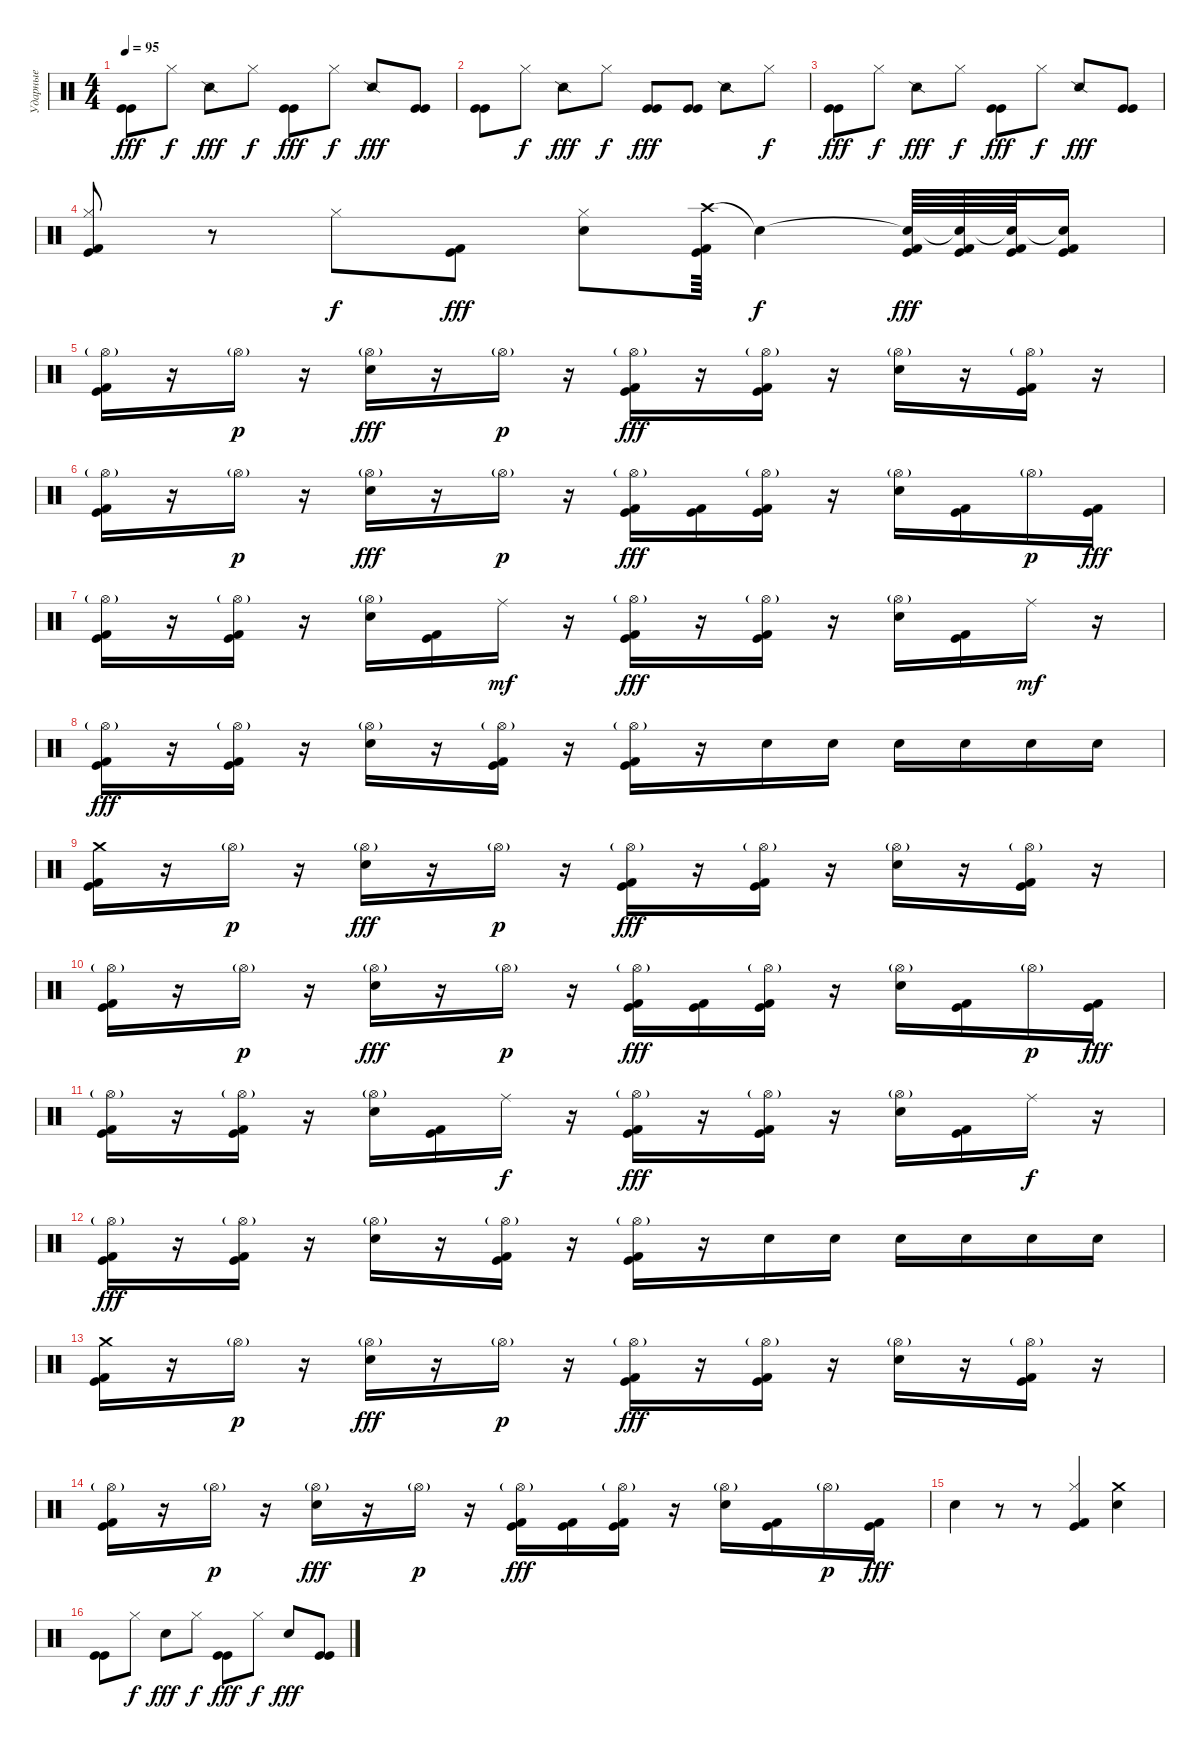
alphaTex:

\track ("Ударные" "Ударные") {instrument percussion}
\staff {score}
\articulation defaults
\ts (4 4)
\tempo 95
\clef neutral
\ks c
("Kick (hit)" "Kick (hit)").8{dy fff} "Hi-Hat (closed)".8{dy f} "Snare (side stick) 2".8{dy fff} "Hi-Hat (closed)".8{dy f} ("Kick (hit)" "Kick (hit)").8{dy fff} "Hi-Hat (closed)".8{dy f} "Snare (side stick) 2".8{dy fff} ("Kick (hit)" "Kick (hit)").8 |
("Kick (hit)" "Kick (hit)").8 "Hi-Hat (closed)".8{dy f} "Snare (side stick) 2".8{dy fff} "Hi-Hat (closed)".8{dy f} ("Kick (hit)" "Kick (hit)").8{dy fff} ("Kick (hit)" "Kick (hit)").8 "Snare (side stick) 2".8 "Hi-Hat (closed)".8{dy f} |
("Kick (hit)" "Kick (hit)").8{dy fff} "Hi-Hat (closed)".8{dy f} "Snare (side stick) 2".8{dy fff} "Hi-Hat (closed)".8{dy f} ("Kick (hit)" "Kick (hit)").8{dy fff} "Hi-Hat (closed)".8{dy f} "Snare (side stick) 2".8{dy fff} ("Kick (hit)" "Kick (hit)").8 |
("Hi-Hat (closed)" "Kick (hit)" "Kick (hit) 2").8 r.8 "Hi-Hat (closed)".8{dy f} ("Kick (hit)" "Kick (hit) 2").8{dy fff} ("Hi-Hat (closed)" "Snare (hit) 2").8 ("Crash high (hit)" "Kick (hit)" "Kick (hit) 2").64 "Snare (hit)"{t}.4{dy f} ("Snare (hit)"{t} "Kick (hit)" "Kick (hit) 2").64{dy fff} ("Snare (hit)"{t} "Kick (hit)" "Kick (hit) 2").64 ("Snare (hit)"{t} "Kick (hit)" "Kick (hit) 2").64 ("Snare (hit)"{t} "Kick (hit)" "Kick (hit) 2").16 |
("Hi-Hat (open)"{g} "Kick (hit) 2" "Kick (hit)").16 r.16 "Hi-Hat (open)"{g}.16{dy p} r.16 ("Hi-Hat (open)"{g} "Electric Snare (hit)").16{dy fff} r.16 "Hi-Hat (open)"{g}.16{dy p} r.16 ("Hi-Hat (open)"{g} "Kick (hit) 2" "Kick (hit)").16{dy fff} r.16 ("Hi-Hat (open)"{g} "Kick (hit) 2" "Kick (hit)").16 r.16 ("Hi-Hat (open)"{g} "Electric Snare (hit)").16 r.16 ("Hi-Hat (open)"{g} "Kick (hit) 2" "Kick (hit)").16 r.16 |
("Hi-Hat (open)"{g} "Kick (hit) 2" "Kick (hit)").16 r.16 "Hi-Hat (open)"{g}.16{dy p} r.16 ("Hi-Hat (open)"{g} "Electric Snare (hit)").16{dy fff} r.16 "Hi-Hat (open)"{g}.16{dy p} r.16 ("Hi-Hat (open)"{g} "Kick (hit) 2" "Kick (hit)").16{dy fff} ("Kick (hit) 2" "Kick (hit)").16 ("Hi-Hat (open)"{g} "Kick (hit) 2" "Kick (hit)").16 r.16 ("Hi-Hat (open)"{g} "Electric Snare (hit)").16 ("Kick (hit) 2" "Kick (hit)").16 "Hi-Hat (open)"{g}.16{dy p} ("Kick (hit) 2" "Kick (hit)").16{dy fff} |
("Hi-Hat (open)"{g} "Kick (hit) 2" "Kick (hit)").16 r.16 ("Hi-Hat (open)"{g} "Kick (hit) 2" "Kick (hit)").16 r.16 ("Hi-Hat (open)"{g} "Electric Snare (hit)").16 ("Kick (hit) 2" "Kick (hit)").16 "Ride (middle)".16{dy mf} r.16 ("Hi-Hat (open)"{g} "Kick (hit) 2" "Kick (hit)").16{dy fff} r.16 ("Hi-Hat (open)"{g} "Kick (hit) 2" "Kick (hit)").16 r.16 ("Hi-Hat (open)"{g} "Electric Snare (hit)").16 ("Kick (hit) 2" "Kick (hit)").16 "Ride (middle)".16{dy mf} r.16 |
("Hi-Hat (open)"{g} "Kick (hit) 2" "Kick (hit)").16{dy fff} r.16 ("Hi-Hat (open)"{g} "Kick (hit) 2" "Kick (hit)").16 r.16 ("Hi-Hat (open)"{g} "Electric Snare (hit)").16 r.16 ("Hi-Hat (open)"{g} "Kick (hit) 2" "Kick (hit)").16 r.16 ("Hi-Hat (open)"{g} "Kick (hit) 2" "Kick (hit)").16 r.16 "Electric Snare (hit)".16 "Electric Snare (hit)".16 "Electric Snare (hit)".16 "Electric Snare (hit)".16 "Electric Snare (hit)".16 "Electric Snare (hit)".16 |
("Crash medium (hit)" "Kick (hit) 2" "Kick (hit)").16 r.16 "Hi-Hat (open)"{g}.16{dy p} r.16 ("Hi-Hat (open)"{g} "Electric Snare (hit)").16{dy fff} r.16 "Hi-Hat (open)"{g}.16{dy p} r.16 ("Hi-Hat (open)"{g} "Kick (hit) 2" "Kick (hit)").16{dy fff} r.16 ("Hi-Hat (open)"{g} "Kick (hit) 2" "Kick (hit)").16 r.16 ("Hi-Hat (open)"{g} "Electric Snare (hit)").16 r.16 ("Hi-Hat (open)"{g} "Kick (hit) 2" "Kick (hit)").16 r.16 |
("Hi-Hat (open)"{g} "Kick (hit) 2" "Kick (hit)").16 r.16 "Hi-Hat (open)"{g}.16{dy p} r.16 ("Hi-Hat (open)"{g} "Electric Snare (hit)").16{dy fff} r.16 "Hi-Hat (open)"{g}.16{dy p} r.16 ("Hi-Hat (open)"{g} "Kick (hit) 2" "Kick (hit)").16{dy fff} ("Kick (hit) 2" "Kick (hit)").16 ("Hi-Hat (open)"{g} "Kick (hit) 2" "Kick (hit)").16 r.16 ("Hi-Hat (open)"{g} "Electric Snare (hit)").16 ("Kick (hit) 2" "Kick (hit)").16 "Hi-Hat (open)"{g}.16{dy p} ("Kick (hit) 2" "Kick (hit)").16{dy fff} |
("Hi-Hat (open)"{g} "Kick (hit) 2" "Kick (hit)").16 r.16 ("Hi-Hat (open)"{g} "Kick (hit) 2" "Kick (hit)").16 r.16 ("Hi-Hat (open)"{g} "Electric Snare (hit)").16 ("Kick (hit) 2" "Kick (hit)").16 "Ride (middle)".16{dy f} r.16 ("Hi-Hat (open)"{g} "Kick (hit) 2" "Kick (hit)").16{dy fff} r.16 ("Hi-Hat (open)"{g} "Kick (hit) 2" "Kick (hit)").16 r.16 ("Hi-Hat (open)"{g} "Electric Snare (hit)").16 ("Kick (hit) 2" "Kick (hit)").16 "Ride (middle)".16{dy f} r.16 |
("Hi-Hat (open)"{g} "Kick (hit) 2" "Kick (hit)").16{dy fff} r.16 ("Hi-Hat (open)"{g} "Kick (hit) 2" "Kick (hit)").16 r.16 ("Hi-Hat (open)"{g} "Electric Snare (hit)").16 r.16 ("Hi-Hat (open)"{g} "Kick (hit) 2" "Kick (hit)").16 r.16 ("Hi-Hat (open)"{g} "Kick (hit) 2" "Kick (hit)").16 r.16 "Electric Snare (hit)".16 "Electric Snare (hit)".16 "Electric Snare (hit)".16 "Electric Snare (hit)".16 "Electric Snare (hit)".16 "Electric Snare (hit)".16 |
("Crash medium (hit)" "Kick (hit) 2" "Kick (hit)").16 r.16 "Hi-Hat (open)"{g}.16{dy p} r.16 ("Hi-Hat (open)"{g} "Electric Snare (hit)").16{dy fff} r.16 "Hi-Hat (open)"{g}.16{dy p} r.16 ("Hi-Hat (open)"{g} "Kick (hit) 2" "Kick (hit)").16{dy fff} r.16 ("Hi-Hat (open)"{g} "Kick (hit) 2" "Kick (hit)").16 r.16 ("Hi-Hat (open)"{g} "Electric Snare (hit)").16 r.16 ("Hi-Hat (open)"{g} "Kick (hit) 2" "Kick (hit)").16 r.16 |
("Hi-Hat (open)"{g} "Kick (hit) 2" "Kick (hit)").16 r.16 "Hi-Hat (open)"{g}.16{dy p} r.16 ("Hi-Hat (open)"{g} "Electric Snare (hit)").16{dy fff} r.16 "Hi-Hat (open)"{g}.16{dy p} r.16 ("Hi-Hat (open)"{g} "Kick (hit) 2" "Kick (hit)").16{dy fff} ("Kick (hit) 2" "Kick (hit)").16 ("Hi-Hat (open)"{g} "Kick (hit) 2" "Kick (hit)").16 r.16 ("Hi-Hat (open)"{g} "Electric Snare (hit)").16 ("Kick (hit) 2" "Kick (hit)").16 "Hi-Hat (open)"{g}.16{dy p} ("Kick (hit) 2" "Kick (hit)").16{dy fff} |
"Snare (hit) 2".4 r.8 r.8 ("Kick (hit)" "Hi-Hat (closed)" "Kick (hit) 2").4 ("Crash medium (hit)" "Snare (hit) 2").4 |
("Kick (hit)" "Kick (hit)").8 "Hi-Hat (closed)".8{dy f} "Snare (hit) 2".8{dy fff} "Hi-Hat (closed)".8{dy f} ("Kick (hit)" "Kick (hit)").8{dy fff} "Hi-Hat (closed)".8{dy f} "Snare (hit) 2".8{dy fff} ("Kick (hit)" "Kick (hit)").8
